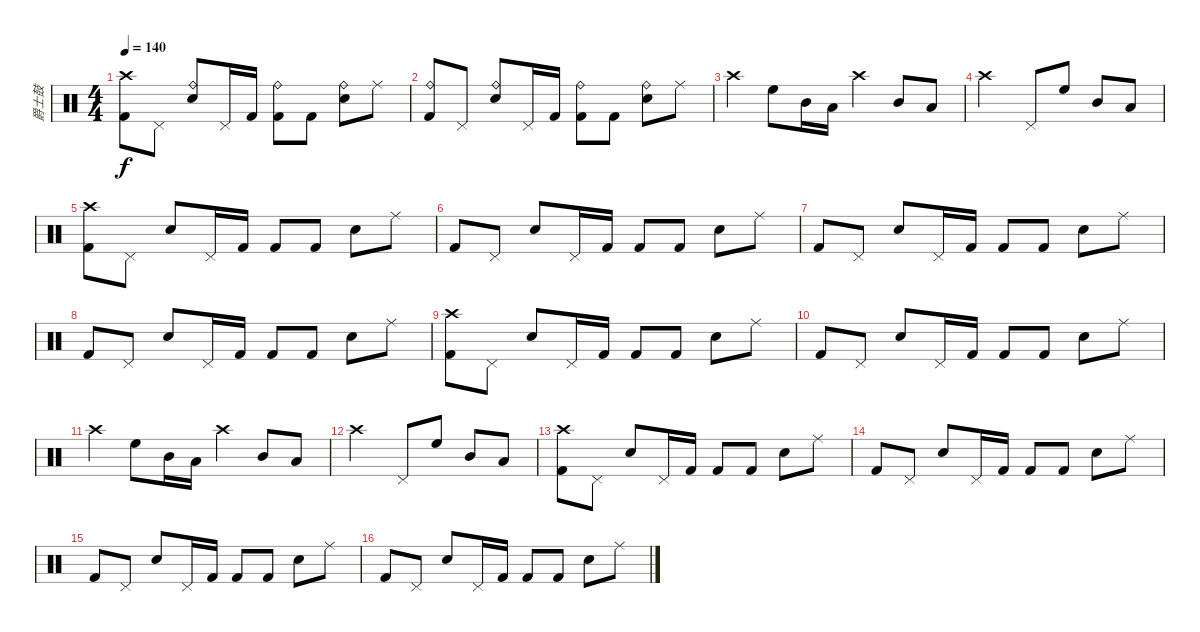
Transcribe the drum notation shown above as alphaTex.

\track ("爵士鼓" "爵士鼓") {instrument percussion}
\staff {score}
\articulation defaults
\ts (4 4)
\tempo 140
\clef neutral
\ks c
("Crash high (hit)" "Kick (hit) 2").8{dy f} "Pedal Hi-Hat (hit)".8 ("Ride (bell)" "Snare (hit) 2").8 "Pedal Hi-Hat (hit)".16 "Kick (hit) 2".16 ("Ride (bell)" "Kick (hit) 2").8 "Kick (hit) 2".8 ("Ride (bell)" "Snare (hit) 2").8 "Ride (middle)".8 |
("Ride (bell)" "Kick (hit) 2").8 "Pedal Hi-Hat (hit)".8 ("Ride (bell)" "Snare (hit) 2").8 "Pedal Hi-Hat (hit)".16 "Kick (hit) 2".16 ("Ride (bell)" "Kick (hit) 2").8 "Kick (hit) 2".8 ("Ride (bell)" "Snare (hit) 2").8 "Ride (middle)".8 |
"Crash high (hit)".4 "High Floor Tom (hit)".8 "Mid Tom (hit)".16 "Low Tom (hit)".16 "Crash high (hit)".4 "Mid Tom (hit)".8 "Low Tom (hit)".8 |
"Crash high (hit)".2 "Pedal Hi-Hat (hit)".8 "High Floor Tom (hit)".8 "Mid Tom (hit)".8 "Low Tom (hit)".8 |
("Crash high (hit)" "Kick (hit) 2").8 "Pedal Hi-Hat (hit)".8 "Snare (hit) 2".8 "Pedal Hi-Hat (hit)".16 "Kick (hit) 2".16 "Kick (hit) 2".8 "Kick (hit) 2".8 "Snare (hit) 2".8 "Ride (middle)".8 |
"Kick (hit) 2".8 "Pedal Hi-Hat (hit)".8 "Snare (hit) 2".8 "Pedal Hi-Hat (hit)".16 "Kick (hit) 2".16 "Kick (hit) 2".8 "Kick (hit) 2".8 "Snare (hit) 2".8 "Ride (middle)".8 |
"Kick (hit) 2".8 "Pedal Hi-Hat (hit)".8 "Snare (hit) 2".8 "Pedal Hi-Hat (hit)".16 "Kick (hit) 2".16 "Kick (hit) 2".8 "Kick (hit) 2".8 "Snare (hit) 2".8 "Ride (middle)".8 |
"Kick (hit) 2".8 "Pedal Hi-Hat (hit)".8 "Snare (hit) 2".8 "Pedal Hi-Hat (hit)".16 "Kick (hit) 2".16 "Kick (hit) 2".8 "Kick (hit) 2".8 "Snare (hit) 2".8 "Ride (middle)".8 |
("Crash high (hit)" "Kick (hit) 2").8 "Pedal Hi-Hat (hit)".8 "Snare (hit) 2".8 "Pedal Hi-Hat (hit)".16 "Kick (hit) 2".16 "Kick (hit) 2".8 "Kick (hit) 2".8 "Snare (hit) 2".8 "Ride (middle)".8 |
"Kick (hit) 2".8 "Pedal Hi-Hat (hit)".8 "Snare (hit) 2".8 "Pedal Hi-Hat (hit)".16 "Kick (hit) 2".16 "Kick (hit) 2".8 "Kick (hit) 2".8 "Snare (hit) 2".8 "Ride (middle)".8 |
"Crash high (hit)".4 "High Floor Tom (hit)".8 "Mid Tom (hit)".16 "Low Tom (hit)".16 "Crash high (hit)".4 "Mid Tom (hit)".8 "Low Tom (hit)".8 |
"Crash high (hit)".2 "Pedal Hi-Hat (hit)".8 "High Floor Tom (hit)".8 "Mid Tom (hit)".8 "Low Tom (hit)".8 |
("Crash high (hit)" "Kick (hit) 2").8 "Pedal Hi-Hat (hit)".8 "Snare (hit) 2".8 "Pedal Hi-Hat (hit)".16 "Kick (hit) 2".16 "Kick (hit) 2".8 "Kick (hit) 2".8 "Snare (hit) 2".8 "Ride (middle)".8 |
"Kick (hit) 2".8 "Pedal Hi-Hat (hit)".8 "Snare (hit) 2".8 "Pedal Hi-Hat (hit)".16 "Kick (hit) 2".16 "Kick (hit) 2".8 "Kick (hit) 2".8 "Snare (hit) 2".8 "Ride (middle)".8 |
"Kick (hit) 2".8 "Pedal Hi-Hat (hit)".8 "Snare (hit) 2".8 "Pedal Hi-Hat (hit)".16 "Kick (hit) 2".16 "Kick (hit) 2".8 "Kick (hit) 2".8 "Snare (hit) 2".8 "Ride (middle)".8 |
"Kick (hit) 2".8 "Pedal Hi-Hat (hit)".8 "Snare (hit) 2".8 "Pedal Hi-Hat (hit)".16 "Kick (hit) 2".16 "Kick (hit) 2".8 "Kick (hit) 2".8 "Snare (hit) 2".8 "Ride (middle)".8
